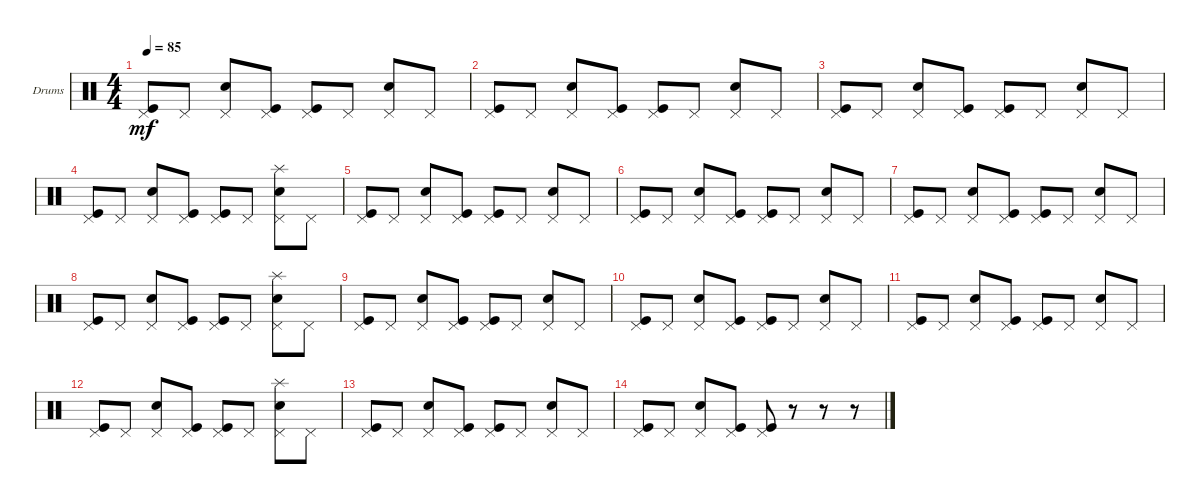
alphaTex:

\defaultSystemsLayout 4
\bracketExtendMode groupsimilarinstruments
\firstSystemTrackNameOrientation horizontal
\otherSystemsTrackNameOrientation horizontal
\track ("Drums" "Drums") {instrument percussion}
\staff {score}
\articulation defaults
\ts (4 4)
\tempo 85
\clef neutral
\ks c
("Kick (hit)" "Pedal Hi-Hat (hit)").8{dy mf} "Pedal Hi-Hat (hit)".8 ("Snare (hit) 2" "Pedal Hi-Hat (hit)").8 ("Pedal Hi-Hat (hit)" "Kick (hit)").8 ("Kick (hit)" "Pedal Hi-Hat (hit)").8 "Pedal Hi-Hat (hit)".8 ("Snare (hit) 2" "Pedal Hi-Hat (hit)").8 "Pedal Hi-Hat (hit)".8 |
("Kick (hit)" "Pedal Hi-Hat (hit)").8 "Pedal Hi-Hat (hit)".8 ("Snare (hit) 2" "Pedal Hi-Hat (hit)").8 ("Pedal Hi-Hat (hit)" "Kick (hit)").8 ("Kick (hit)" "Pedal Hi-Hat (hit)").8 "Pedal Hi-Hat (hit)".8 ("Snare (hit) 2" "Pedal Hi-Hat (hit)").8 "Pedal Hi-Hat (hit)".8 |
("Kick (hit)" "Pedal Hi-Hat (hit)").8 "Pedal Hi-Hat (hit)".8 ("Snare (hit) 2" "Pedal Hi-Hat (hit)").8 ("Pedal Hi-Hat (hit)" "Kick (hit)").8 ("Kick (hit)" "Pedal Hi-Hat (hit)").8 "Pedal Hi-Hat (hit)".8 ("Snare (hit) 2" "Pedal Hi-Hat (hit)").8 "Pedal Hi-Hat (hit)".8 |
("Kick (hit)" "Pedal Hi-Hat (hit)").8 "Pedal Hi-Hat (hit)".8 ("Snare (hit) 2" "Pedal Hi-Hat (hit)").8 ("Pedal Hi-Hat (hit)" "Kick (hit)").8 ("Kick (hit)" "Pedal Hi-Hat (hit)").8 "Pedal Hi-Hat (hit)".8 ("Snare (hit) 2" "Pedal Hi-Hat (hit)" "Splash (hit)").8 "Pedal Hi-Hat (hit)".8 |
("Kick (hit)" "Pedal Hi-Hat (hit)").8 "Pedal Hi-Hat (hit)".8 ("Snare (hit) 2" "Pedal Hi-Hat (hit)").8 ("Pedal Hi-Hat (hit)" "Kick (hit)").8 ("Kick (hit)" "Pedal Hi-Hat (hit)").8 "Pedal Hi-Hat (hit)".8 ("Snare (hit) 2" "Pedal Hi-Hat (hit)").8 "Pedal Hi-Hat (hit)".8 |
("Kick (hit)" "Pedal Hi-Hat (hit)").8 "Pedal Hi-Hat (hit)".8 ("Snare (hit) 2" "Pedal Hi-Hat (hit)").8 ("Pedal Hi-Hat (hit)" "Kick (hit)").8 ("Kick (hit)" "Pedal Hi-Hat (hit)").8 "Pedal Hi-Hat (hit)".8 ("Snare (hit) 2" "Pedal Hi-Hat (hit)").8 "Pedal Hi-Hat (hit)".8 |
("Kick (hit)" "Pedal Hi-Hat (hit)").8 "Pedal Hi-Hat (hit)".8 ("Snare (hit) 2" "Pedal Hi-Hat (hit)").8 ("Pedal Hi-Hat (hit)" "Kick (hit)").8 ("Kick (hit)" "Pedal Hi-Hat (hit)").8 "Pedal Hi-Hat (hit)".8 ("Snare (hit) 2" "Pedal Hi-Hat (hit)").8 "Pedal Hi-Hat (hit)".8 |
("Kick (hit)" "Pedal Hi-Hat (hit)").8 "Pedal Hi-Hat (hit)".8 ("Snare (hit) 2" "Pedal Hi-Hat (hit)").8 ("Pedal Hi-Hat (hit)" "Kick (hit)").8 ("Kick (hit)" "Pedal Hi-Hat (hit)").8 "Pedal Hi-Hat (hit)".8 ("Snare (hit) 2" "Pedal Hi-Hat (hit)" "Splash (hit)").8 "Pedal Hi-Hat (hit)".8 |
("Kick (hit)" "Pedal Hi-Hat (hit)").8 "Pedal Hi-Hat (hit)".8 ("Snare (hit) 2" "Pedal Hi-Hat (hit)").8 ("Pedal Hi-Hat (hit)" "Kick (hit)").8 ("Kick (hit)" "Pedal Hi-Hat (hit)").8 "Pedal Hi-Hat (hit)".8 ("Snare (hit) 2" "Pedal Hi-Hat (hit)").8 "Pedal Hi-Hat (hit)".8 |
("Kick (hit)" "Pedal Hi-Hat (hit)").8 "Pedal Hi-Hat (hit)".8 ("Snare (hit) 2" "Pedal Hi-Hat (hit)").8 ("Pedal Hi-Hat (hit)" "Kick (hit)").8 ("Kick (hit)" "Pedal Hi-Hat (hit)").8 "Pedal Hi-Hat (hit)".8 ("Snare (hit) 2" "Pedal Hi-Hat (hit)").8 "Pedal Hi-Hat (hit)".8 |
("Kick (hit)" "Pedal Hi-Hat (hit)").8 "Pedal Hi-Hat (hit)".8 ("Snare (hit) 2" "Pedal Hi-Hat (hit)").8 ("Pedal Hi-Hat (hit)" "Kick (hit)").8 ("Kick (hit)" "Pedal Hi-Hat (hit)").8 "Pedal Hi-Hat (hit)".8 ("Snare (hit) 2" "Pedal Hi-Hat (hit)").8 "Pedal Hi-Hat (hit)".8 |
("Kick (hit)" "Pedal Hi-Hat (hit)").8 "Pedal Hi-Hat (hit)".8 ("Snare (hit) 2" "Pedal Hi-Hat (hit)").8 ("Pedal Hi-Hat (hit)" "Kick (hit)").8 ("Kick (hit)" "Pedal Hi-Hat (hit)").8 "Pedal Hi-Hat (hit)".8 ("Snare (hit) 2" "Pedal Hi-Hat (hit)" "Splash (hit)").8 "Pedal Hi-Hat (hit)".8 |
("Kick (hit)" "Pedal Hi-Hat (hit)").8 "Pedal Hi-Hat (hit)".8 ("Snare (hit) 2" "Pedal Hi-Hat (hit)").8 ("Pedal Hi-Hat (hit)" "Kick (hit)").8 ("Kick (hit)" "Pedal Hi-Hat (hit)").8 "Pedal Hi-Hat (hit)".8 ("Snare (hit) 2" "Pedal Hi-Hat (hit)").8 "Pedal Hi-Hat (hit)".8 |
("Kick (hit)" "Pedal Hi-Hat (hit)").8 "Pedal Hi-Hat (hit)".8 ("Snare (hit) 2" "Pedal Hi-Hat (hit)").8 ("Pedal Hi-Hat (hit)" "Kick (hit)").8 ("Kick (hit)" "Pedal Hi-Hat (hit)").8 r.8 r.8 r.8
